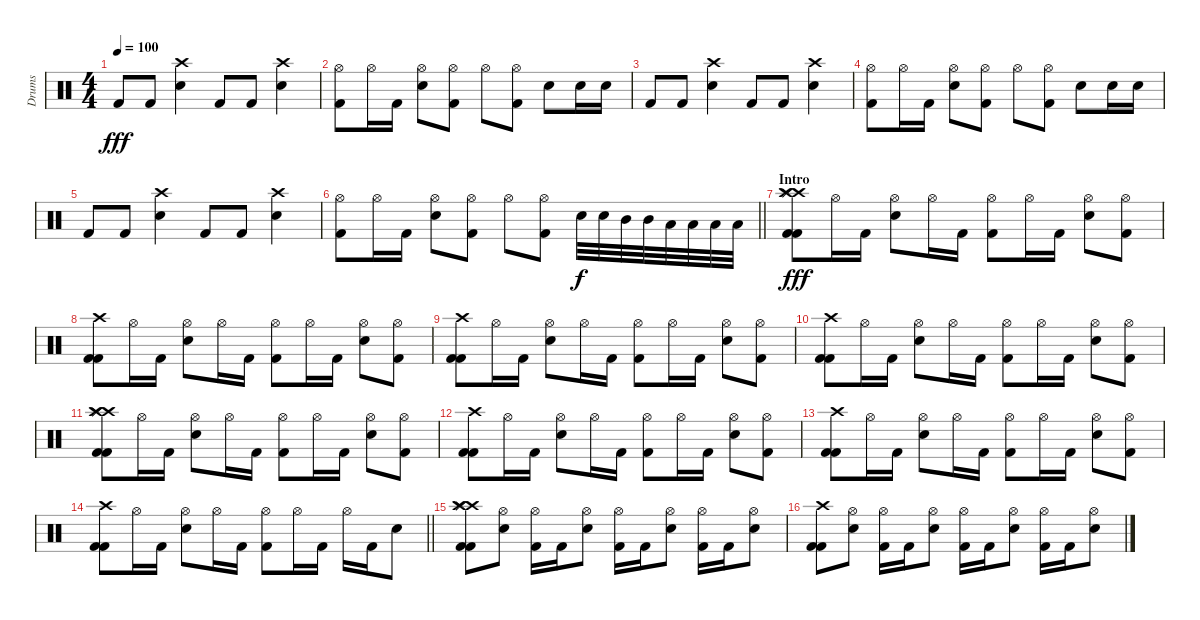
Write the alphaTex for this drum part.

\track ("Drums" "Drums") {instrument percussion}
\staff {score}
\articulation defaults
\ts (4 4)
\tempo 100
\clef neutral
\ks c "Kick (hit) 2".8{dy fff} "Kick (hit) 2".8
("Crash high (hit)" "Electric Snare (hit)").4 "Kick (hit) 2".8 "Kick (hit) 2".8 ("Crash high (hit)" "Electric Snare (hit)").4 |
("Hi-Hat (open)" "Kick (hit) 2").8 "Hi-Hat (open)".16 "Kick (hit) 2".16 ("Hi-Hat (open)" "Electric Snare (hit)").8 ("Hi-Hat (open)" "Kick (hit) 2").8 "Hi-Hat (open)".8 ("Hi-Hat (open)" "Kick (hit) 2").8 "Electric Snare (hit)".8 "Electric Snare (hit)".16 "Electric Snare (hit)".16 |
"Kick (hit) 2".8 "Kick (hit) 2".8 ("Crash high (hit)" "Electric Snare (hit)").4 "Kick (hit) 2".8 "Kick (hit) 2".8 ("Crash high (hit)" "Electric Snare (hit)").4 |
("Hi-Hat (open)" "Kick (hit) 2").8 "Hi-Hat (open)".16 "Kick (hit) 2".16 ("Hi-Hat (open)" "Electric Snare (hit)").8 ("Hi-Hat (open)" "Kick (hit) 2").8 "Hi-Hat (open)".8 ("Hi-Hat (open)" "Kick (hit) 2").8 "Electric Snare (hit)".8 "Electric Snare (hit)".16 "Electric Snare (hit)".16 |
"Kick (hit) 2".8 "Kick (hit) 2".8 ("Crash high (hit)" "Electric Snare (hit)").4 "Kick (hit) 2".8 "Kick (hit) 2".8 ("Crash high (hit)" "Electric Snare (hit)").4 |
\barLineRight lightlight
("Hi-Hat (open)" "Kick (hit) 2").8 "Hi-Hat (open)".16 "Kick (hit) 2".16 ("Hi-Hat (open)" "Electric Snare (hit)").8 ("Hi-Hat (open)" "Kick (hit) 2").8 "Hi-Hat (open)".8 ("Hi-Hat (open)" "Kick (hit) 2").8 "Electric Snare (hit)".32{dy f} "Electric Snare (hit)".32 "Mid Tom (hit)".32 "Mid Tom (hit)".32 "Low Tom (hit)".32 "Low Tom (hit)".32 "Low Floor Tom (hit)".32 "Low Floor Tom (hit)".32 |
\section ("" "Intro")
("Crash high (hit)" "Crash high (hit)" "Splash (hit)" "Splash (hit)" "Kick (hit) 2" "Kick (hit) 2").8{dy fff} "Hi-Hat (open)".16 "Kick (hit) 2".16 ("Hi-Hat (open)" "Electric Snare (hit)").8 "Hi-Hat (open)".16 "Kick (hit) 2".16 ("Hi-Hat (open)" "Kick (hit) 2").8 "Hi-Hat (open)".16 "Kick (hit) 2".16 ("Hi-Hat (open)" "Electric Snare (hit)").8 ("Hi-Hat (open)" "Kick (hit) 2").8 |
("Crash high (hit)" "Kick (hit) 2" "Kick (hit) 2").8 "Hi-Hat (open)".16 "Kick (hit) 2".16 ("Hi-Hat (open)" "Electric Snare (hit)").8 "Hi-Hat (open)".16 "Kick (hit) 2".16 ("Hi-Hat (open)" "Kick (hit) 2").8 "Hi-Hat (open)".16 "Kick (hit) 2".16 ("Hi-Hat (open)" "Electric Snare (hit)").8 ("Hi-Hat (open)" "Kick (hit) 2").8 |
("Crash high (hit)" "Kick (hit) 2" "Kick (hit) 2").8 "Hi-Hat (open)".16 "Kick (hit) 2".16 ("Hi-Hat (open)" "Electric Snare (hit)").8 "Hi-Hat (open)".16 "Kick (hit) 2".16 ("Hi-Hat (open)" "Kick (hit) 2").8 "Hi-Hat (open)".16 "Kick (hit) 2".16 ("Hi-Hat (open)" "Electric Snare (hit)").8 ("Hi-Hat (open)" "Kick (hit) 2").8 |
("Crash high (hit)" "Kick (hit) 2" "Kick (hit) 2").8 "Hi-Hat (open)".16 "Kick (hit) 2".16 ("Hi-Hat (open)" "Electric Snare (hit)").8 "Hi-Hat (open)".16 "Kick (hit) 2".16 ("Hi-Hat (open)" "Kick (hit) 2").8 "Hi-Hat (open)".16 "Kick (hit) 2".16 ("Hi-Hat (open)" "Electric Snare (hit)").8 ("Hi-Hat (open)" "Kick (hit) 2").8 |
("Crash high (hit)" "Crash high (hit)" "Splash (hit)" "Splash (hit)" "Kick (hit) 2" "Kick (hit) 2").8 "Hi-Hat (open)".16 "Kick (hit) 2".16 ("Hi-Hat (open)" "Electric Snare (hit)").8 "Hi-Hat (open)".16 "Kick (hit) 2".16 ("Hi-Hat (open)" "Kick (hit) 2").8 "Hi-Hat (open)".16 "Kick (hit) 2".16 ("Hi-Hat (open)" "Electric Snare (hit)").8 ("Hi-Hat (open)" "Kick (hit) 2").8 |
("Crash high (hit)" "Kick (hit) 2" "Kick (hit) 2").8 "Hi-Hat (open)".16 "Kick (hit) 2".16 ("Hi-Hat (open)" "Electric Snare (hit)").8 "Hi-Hat (open)".16 "Kick (hit) 2".16 ("Hi-Hat (open)" "Kick (hit) 2").8 "Hi-Hat (open)".16 "Kick (hit) 2".16 ("Hi-Hat (open)" "Electric Snare (hit)").8 ("Hi-Hat (open)" "Kick (hit) 2").8 |
("Crash high (hit)" "Kick (hit) 2" "Kick (hit) 2").8 "Hi-Hat (open)".16 "Kick (hit) 2".16 ("Hi-Hat (open)" "Electric Snare (hit)").8 "Hi-Hat (open)".16 "Kick (hit) 2".16 ("Hi-Hat (open)" "Kick (hit) 2").8 "Hi-Hat (open)".16 "Kick (hit) 2".16 ("Hi-Hat (open)" "Electric Snare (hit)").8 ("Hi-Hat (open)" "Kick (hit) 2").8 |
\barLineRight lightlight
("Crash high (hit)" "Kick (hit) 2" "Kick (hit) 2").8 "Hi-Hat (open)".16 "Kick (hit) 2".16 ("Hi-Hat (open)" "Electric Snare (hit)").8 "Hi-Hat (open)".16 "Kick (hit) 2".16 ("Hi-Hat (open)" "Kick (hit) 2").8 "Hi-Hat (open)".16 "Kick (hit) 2".16 "Hi-Hat (open)".16 "Kick (hit) 2".16 "Electric Snare (hit)".8 |
("Crash high (hit)" "Crash high (hit)" "Splash (hit)" "Splash (hit)" "Kick (hit) 2" "Kick (hit) 2").8 ("Hi-Hat (open)" "Electric Snare (hit)").8 ("Hi-Hat (open)" "Kick (hit) 2").16 "Kick (hit) 2".16 ("Hi-Hat (open)" "Electric Snare (hit)").8 ("Hi-Hat (open)" "Kick (hit) 2").16 "Kick (hit) 2".16 ("Hi-Hat (open)" "Electric Snare (hit)").8 ("Hi-Hat (open)" "Kick (hit) 2").16 "Kick (hit) 2".16 ("Hi-Hat (open)" "Electric Snare (hit)").8 |
("Crash high (hit)" "Kick (hit) 2" "Kick (hit) 2").8 ("Hi-Hat (open)" "Electric Snare (hit)").8 ("Hi-Hat (open)" "Kick (hit) 2").16 "Kick (hit) 2".16 ("Hi-Hat (open)" "Electric Snare (hit)").8 ("Hi-Hat (open)" "Kick (hit) 2").16 "Kick (hit) 2".16 ("Hi-Hat (open)" "Electric Snare (hit)").8 ("Hi-Hat (open)" "Kick (hit) 2").16 "Kick (hit) 2".16 ("Hi-Hat (open)" "Electric Snare (hit)").8
